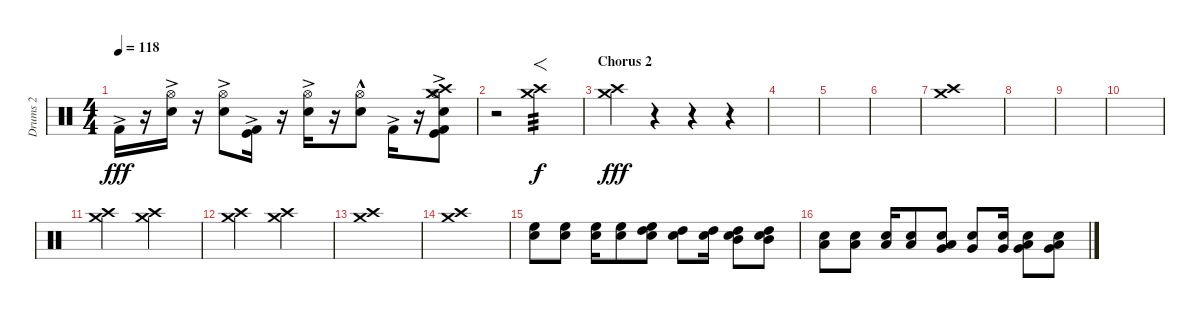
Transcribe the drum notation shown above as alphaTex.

\track ("Drums 2" "Drums 2") {instrument percussion}
\staff {score}
\articulation defaults
\ts (4 4)
\tempo 118
\clef neutral
\ks c "Kick (hit) 2"{ac}.16{dy fff}
r.16 ("Hi-Hat (open)"{ac} "Electric Snare (hit)"{ac}).16 r.16 ("Hi-Hat (open)"{ac} "Electric Snare (hit)"{ac}).8 ("Kick (hit) 2"{ac} "Kick (hit)").16 r.16 ("Hi-Hat (open)" "Electric Snare (hit)"{ac}).16 r.16 ("Hi-Hat (open)" "Electric Snare (hit)"{hac}).8 "Kick (hit) 2"{ac}.16 r.16 ("Hi-Hat (open)"{ac} "Electric Snare (hit)"{ac} "Kick (hit) 2" "Kick (hit)" "Crash high (hit)" "Crash medium (hit)").8 |
r.2{volume 16} ("Crash medium (hit)" "Crash high (hit)").2{f tp 3 dy f} |
\section ("" "Chorus 2")
("Crash medium (hit)" "Crash high (hit)").4{dy fff volume 12} r.4 r.4 r.4 |
|
|
|
("Crash medium (hit)" "Crash high (hit)").1 |
|
|
|
("Crash medium (hit)" "Crash high (hit)").2 ("Crash medium (hit)" "Crash high (hit)").2 |
("Crash medium (hit)" "Crash high (hit)").2 ("Crash medium (hit)" "Crash high (hit)").2 |
("Crash medium (hit)" "Crash high (hit)").1 |
("Crash medium (hit)" "Crash high (hit)").1 |
("High Floor Tom (hit)" "Snare (hit) 2").8{volume 16 balance 0} ("High Floor Tom (hit)" "Snare (hit) 2").8 ("High Floor Tom (hit)" "Snare (hit) 2").16 ("High Floor Tom (hit)" "Snare (hit) 2").8 ("High Floor Tom (hit)" "High Tom (hit)" "Snare (hit) 2").8 ("High Tom (hit)" "Snare (hit) 2").8 ("High Tom (hit)" "Snare (hit) 2").16 ("High Tom (hit)" "Mid Tom (hit)" "Snare (hit) 2").8 ("High Tom (hit)" "Mid Tom (hit)" "Snare (hit) 2").8 |
("Low Tom (hit)" "Snare (hit) 2").8{balance 16} ("Low Tom (hit)" "Snare (hit) 2").8 ("Low Tom (hit)" "Snare (hit) 2").16 ("Low Tom (hit)" "Snare (hit) 2").8 ("Low Tom (hit)" "Very Low Tom (hit)" "Snare (hit) 2").8 ("Very Low Tom (hit)" "Snare (hit) 2").8 ("Very Low Tom (hit)" "Snare (hit) 2").16 ("Very Low Tom (hit)" "Low Floor Tom (hit)" "Snare (hit) 2").8 ("Very Low Tom (hit)" "Low Floor Tom (hit)" "Snare (hit) 2").8
